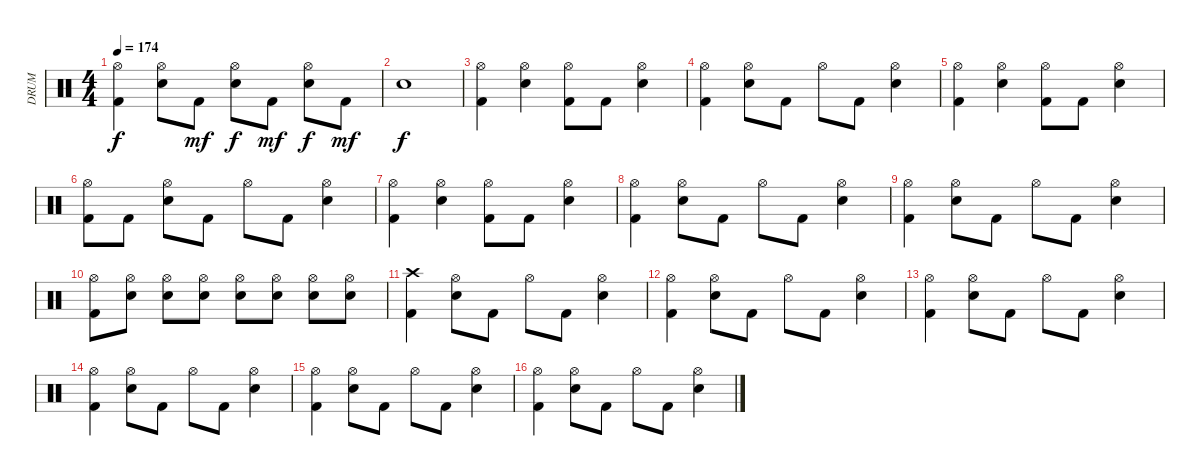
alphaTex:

\track ("DRUM" "DRUM") {instrument percussion}
\staff {score}
\articulation defaults
\ts (4 4)
\tempo 174
\clef neutral
\ks c
("Hi-Hat (open)" "Kick (hit) 2").4{dy f} ("Hi-Hat (open)" "Snare (hit) 2").8 "Kick (hit) 2".8{dy mf} ("Hi-Hat (open)" "Snare (hit) 2").8{dy f} "Kick (hit) 2".8{dy mf} ("Hi-Hat (open)" "Snare (hit) 2").8{dy f} "Kick (hit) 2".8{dy mf} |
"Snare (hit) 2".1{dy f} |
("Hi-Hat (open)" "Kick (hit) 2").4 ("Hi-Hat (open)" "Snare (hit) 2").4 ("Hi-Hat (open)" "Kick (hit) 2").8 "Kick (hit) 2".8 ("Hi-Hat (open)" "Snare (hit) 2").4 |
("Hi-Hat (open)" "Kick (hit) 2").4 ("Hi-Hat (open)" "Snare (hit) 2").8 "Kick (hit) 2".8 "Hi-Hat (open)".8 "Kick (hit) 2".8 ("Hi-Hat (open)" "Snare (hit) 2").4 |
("Hi-Hat (open)" "Kick (hit) 2").4 ("Hi-Hat (open)" "Snare (hit) 2").4 ("Hi-Hat (open)" "Kick (hit) 2").8 "Kick (hit) 2".8 ("Hi-Hat (open)" "Snare (hit) 2").4 |
("Hi-Hat (open)" "Kick (hit) 2").8 "Kick (hit) 2".8 ("Hi-Hat (open)" "Snare (hit) 2").8 "Kick (hit) 2".8 "Hi-Hat (open)".8 "Kick (hit) 2".8 ("Hi-Hat (open)" "Snare (hit) 2").4 |
("Hi-Hat (open)" "Kick (hit) 2").4 ("Hi-Hat (open)" "Snare (hit) 2").4 ("Hi-Hat (open)" "Kick (hit) 2").8 "Kick (hit) 2".8 ("Hi-Hat (open)" "Snare (hit) 2").4 |
("Hi-Hat (open)" "Kick (hit) 2").4 ("Hi-Hat (open)" "Snare (hit) 2").8 "Kick (hit) 2".8 "Hi-Hat (open)".8 "Kick (hit) 2".8 ("Hi-Hat (open)" "Snare (hit) 2").4 |
("Hi-Hat (open)" "Kick (hit) 2").4 ("Hi-Hat (open)" "Snare (hit) 2").8 "Kick (hit) 2".8 "Hi-Hat (open)".8 "Kick (hit) 2".8 ("Hi-Hat (open)" "Snare (hit) 2").4 |
("Hi-Hat (open)" "Kick (hit) 2").8 ("Hi-Hat (open)" "Snare (hit) 2").8 ("Hi-Hat (open)" "Snare (hit) 2").8 ("Hi-Hat (open)" "Snare (hit) 2").8 ("Hi-Hat (open)" "Snare (hit) 2").8 ("Hi-Hat (open)" "Snare (hit) 2").8 ("Hi-Hat (open)" "Snare (hit) 2").8 ("Hi-Hat (open)" "Snare (hit) 2").8 |
("Crash high (hit)" "Kick (hit) 2").4 ("Hi-Hat (open)" "Snare (hit) 2").8 "Kick (hit) 2".8 "Hi-Hat (open)".8 "Kick (hit) 2".8 ("Hi-Hat (open)" "Snare (hit) 2").4 |
("Hi-Hat (open)" "Kick (hit) 2").4 ("Hi-Hat (open)" "Snare (hit) 2").8 "Kick (hit) 2".8 "Hi-Hat (open)".8 "Kick (hit) 2".8 ("Hi-Hat (open)" "Snare (hit) 2").4 |
("Hi-Hat (open)" "Kick (hit) 2").4 ("Hi-Hat (open)" "Snare (hit) 2").8 "Kick (hit) 2".8 "Hi-Hat (open)".8 "Kick (hit) 2".8 ("Hi-Hat (open)" "Snare (hit) 2").4 |
("Hi-Hat (open)" "Kick (hit) 2").4 ("Hi-Hat (open)" "Snare (hit) 2").8 "Kick (hit) 2".8 "Hi-Hat (open)".8 "Kick (hit) 2".8 ("Hi-Hat (open)" "Snare (hit) 2").4 |
("Hi-Hat (open)" "Kick (hit) 2").4 ("Hi-Hat (open)" "Snare (hit) 2").8 "Kick (hit) 2".8 "Hi-Hat (open)".8 "Kick (hit) 2".8 ("Hi-Hat (open)" "Snare (hit) 2").4 |
("Hi-Hat (open)" "Kick (hit) 2").4 ("Hi-Hat (open)" "Snare (hit) 2").8 "Kick (hit) 2".8 "Hi-Hat (open)".8 "Kick (hit) 2".8 ("Hi-Hat (open)" "Snare (hit) 2").4
